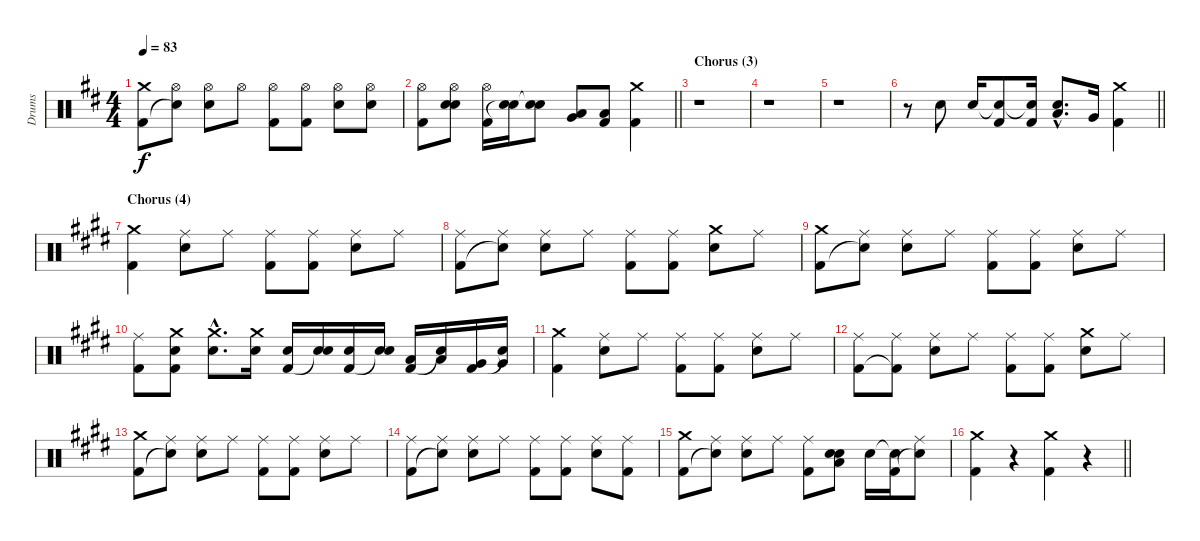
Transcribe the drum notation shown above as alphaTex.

\track ("Drums" "Drums") {instrument percussion}
\staff {score}
\articulation defaults
\ts (4 4)
\tempo 83
\clef neutral
\ks d
("Crash medium (hit)" "Kick (hit) 2").8{dy f} ("Hi-Hat (open)" "Snare (hit)"{t}).8 ("Hi-Hat (open)" "Electric Snare (hit)").8 "Hi-Hat (open)".8 ("Hi-Hat (open)" "Kick (hit) 2").8 ("Hi-Hat (open)" "Kick (hit) 2").8 ("Hi-Hat (open)" "Electric Snare (hit)").8 ("Hi-Hat (open)" "Electric Snare (hit)").8 |
\barLineRight lightlight
("Hi-Hat (open)" "Kick (hit) 2").8 ("Hi-Hat (open)" "Electric Snare (hit)" "Snare (hit)").8 ("Hi-Hat (open)" "Kick (hit) 2").16 ("Electric Snare (hit)" "Snare (hit)"{t}).16 ("Electric Snare (hit)" "Snare (hit)"{t}).8 ("Low Tom (hit)" "Very Low Tom (hit)").8 ("Low Floor Tom (hit)" "Kick (hit) 2").8 ("Crash medium (hit)" "Kick (hit) 2").4 |
\section ("" "Chorus (3)")
r.1 |
r.1 |
r.1 |
\barLineRight lightlight
r.8 "Electric Snare (hit)".8 "Electric Snare (hit)".16 ("Snare (hit)"{t} "Kick (hit) 2").8 ("Snare (hit)"{t} "Kick (hit) 2").16 ("Electric Snare (hit)"{hac} "Low Tom (hit)"{hac}).8{d} "Very Low Tom (hit)".16 ("Crash medium (hit)" "Kick (hit) 2").4 |
\section ("" "Chorus (4)")
\ks e
("Crash medium (hit)" "Kick (hit) 2").4 ("Ride (middle)" "Electric Snare (hit)").8 "Ride (middle)".8 ("Ride (middle)" "Kick (hit) 2").8 ("Ride (middle)" "Kick (hit) 2").8 ("Ride (middle)" "Electric Snare (hit)").8 "Ride (middle)".8 |
("Ride (middle)" "Kick (hit) 2").8 ("Ride (middle)" "Snare (hit)"{t}).8 ("Ride (middle)" "Electric Snare (hit)").8 "Ride (middle)".8 ("Ride (middle)" "Kick (hit) 2").8 ("Ride (middle)" "Kick (hit) 2").8 ("Crash medium (hit)" "Electric Snare (hit)").8 "Ride (middle)".8 |
("Crash medium (hit)" "Kick (hit) 2").8 ("Ride (middle)" "Snare (hit)"{t}).8 ("Ride (middle)" "Electric Snare (hit)").8 "Ride (middle)".8 ("Ride (middle)" "Kick (hit) 2").8 ("Ride (middle)" "Kick (hit) 2").8 ("Ride (middle)" "Electric Snare (hit)").8 "Ride (middle)".8 |
("Ride (middle)" "Kick (hit) 2").8 ("Crash medium (hit)" "Electric Snare (hit)" "Kick (hit) 2").8 ("Crash medium (hit)"{hac} "Electric Snare (hit)"{hac}).8{d} ("Crash medium (hit)" "Electric Snare (hit)").16 ("Electric Snare (hit)" "Kick (hit) 2").16 ("Electric Snare (hit)" "Snare (hit)"{t}).16 ("Electric Snare (hit)" "Kick (hit) 2").16 ("Electric Snare (hit)" "Snare (hit)"{t}).16 ("Low Tom (hit)" "Kick (hit) 2").16 ("Low Tom (hit)" "Snare (hit)"{t}).16 ("Very Low Tom (hit)" "Kick (hit) 2").16 ("Very Low Tom (hit)" "Snare (hit)"{t}).16 |
("Crash medium (hit)" "Kick (hit) 2").4 ("Ride (middle)" "Electric Snare (hit)").8 "Ride (middle)".8 ("Ride (middle)" "Kick (hit) 2").8 ("Ride (middle)" "Kick (hit) 2").8 ("Ride (middle)" "Electric Snare (hit)").8 "Ride (middle)".8 |
("Ride (middle)" "Kick (hit) 2").8 ("Ride (middle)" "Kick (hit) 2"{t}).8 ("Ride (middle)" "Electric Snare (hit)").8 "Ride (middle)".8 ("Ride (middle)" "Kick (hit) 2").8 ("Ride (middle)" "Kick (hit) 2").8 ("Crash medium (hit)" "Electric Snare (hit)").8 "Ride (middle)".8 |
("Crash medium (hit)" "Kick (hit) 2").8 ("Ride (middle)" "Snare (hit)"{t}).8 ("Ride (middle)" "Electric Snare (hit)").8 "Ride (middle)".8 ("Ride (middle)" "Kick (hit) 2").8 ("Ride (middle)" "Kick (hit) 2").8 ("Ride (middle)" "Electric Snare (hit)").8 "Ride (middle)".8 |
("Ride (middle)" "Kick (hit) 2").8 ("Ride (middle)" "Snare (hit)"{t}).8 ("Ride (middle)" "Electric Snare (hit)").8 "Ride (middle)".8 ("Ride (middle)" "Kick (hit) 2").8 ("Ride (middle)" "Kick (hit) 2").8 ("Ride (middle)" "Electric Snare (hit)").8 ("Ride (middle)" "Kick (hit) 2").8 |
("Crash medium (hit)" "Kick (hit) 2").8 ("Ride (middle)" "Snare (hit)"{t}).8 ("Ride (middle)" "Electric Snare (hit)").8 "Ride (middle)".8 ("Ride (middle)" "Kick (hit) 2").8 ("Electric Snare (hit)" "Low Floor Tom (hit)" "Snare (hit)").8 "Electric Snare (hit)".16 ("Snare (hit)"{t} "Kick (hit) 2").16 ("Ride (middle)" "Snare (hit)"{t}).8 |
\barLineRight lightlight
("Crash medium (hit)" "Kick (hit) 2").4 r.4 ("Crash medium (hit)" "Kick (hit) 2").4 r.4
